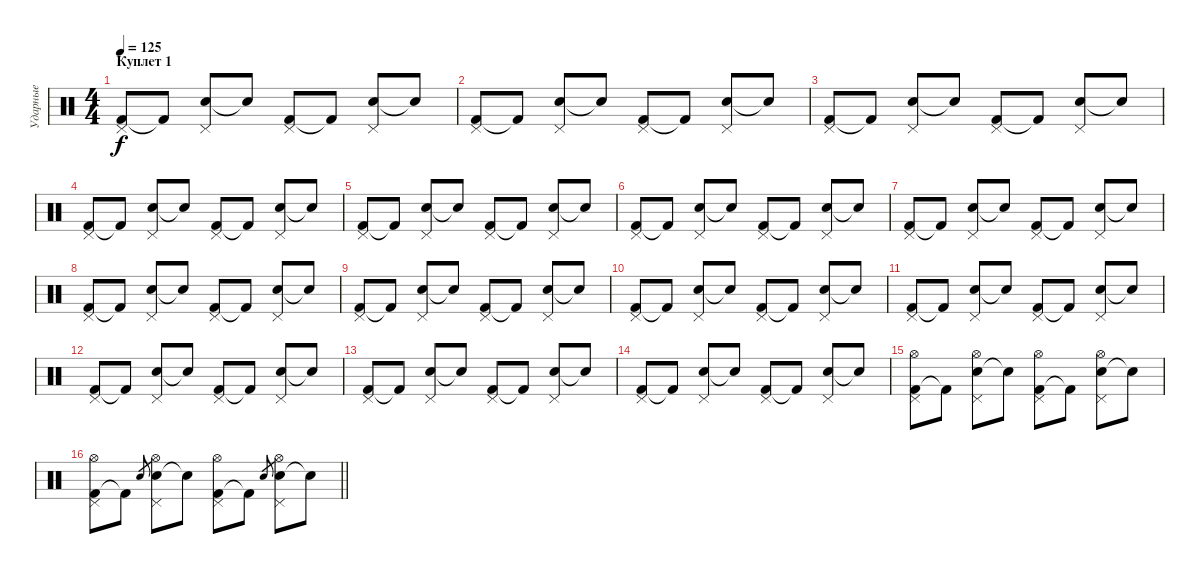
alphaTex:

\track ("Ударные" "Ударные") {instrument percussion}
\staff {score}
\articulation defaults
\ts (4 4)
\section ("" "Куплет 1")
\tempo 125
\clef neutral
\ks c
("Kick (hit) 2" "Pedal Hi-Hat (hit)").8{dy f} "Kick (hit) 2"{t}.8 ("Electric Snare (hit)" "Pedal Hi-Hat (hit)").8 "Electric Snare (hit)"{t}.8 ("Kick (hit) 2" "Pedal Hi-Hat (hit)").8 "Kick (hit) 2"{t}.8 ("Electric Snare (hit)" "Pedal Hi-Hat (hit)").8 "Electric Snare (hit)"{t}.8 |
("Kick (hit) 2" "Pedal Hi-Hat (hit)").8 "Kick (hit) 2"{t}.8 ("Electric Snare (hit)" "Pedal Hi-Hat (hit)").8 "Electric Snare (hit)"{t}.8 ("Kick (hit) 2" "Pedal Hi-Hat (hit)").8 "Kick (hit) 2"{t}.8 ("Electric Snare (hit)" "Pedal Hi-Hat (hit)").8 "Electric Snare (hit)"{t}.8 |
("Kick (hit) 2" "Pedal Hi-Hat (hit)").8 "Kick (hit) 2"{t}.8 ("Electric Snare (hit)" "Pedal Hi-Hat (hit)").8 "Electric Snare (hit)"{t}.8 ("Kick (hit) 2" "Pedal Hi-Hat (hit)").8 "Kick (hit) 2"{t}.8 ("Electric Snare (hit)" "Pedal Hi-Hat (hit)").8 "Electric Snare (hit)"{t}.8 |
("Kick (hit) 2" "Pedal Hi-Hat (hit)").8 "Kick (hit) 2"{t}.8 ("Electric Snare (hit)" "Pedal Hi-Hat (hit)").8 "Electric Snare (hit)"{t}.8 ("Kick (hit) 2" "Pedal Hi-Hat (hit)").8 "Kick (hit) 2"{t}.8 ("Electric Snare (hit)" "Pedal Hi-Hat (hit)").8 "Electric Snare (hit)"{t}.8 |
("Kick (hit) 2" "Pedal Hi-Hat (hit)").8 "Kick (hit) 2"{t}.8 ("Electric Snare (hit)" "Pedal Hi-Hat (hit)").8 "Electric Snare (hit)"{t}.8 ("Kick (hit) 2" "Pedal Hi-Hat (hit)").8 "Kick (hit) 2"{t}.8 ("Electric Snare (hit)" "Pedal Hi-Hat (hit)").8 "Electric Snare (hit)"{t}.8 |
("Kick (hit) 2" "Pedal Hi-Hat (hit)").8 "Kick (hit) 2"{t}.8 ("Electric Snare (hit)" "Pedal Hi-Hat (hit)").8 "Electric Snare (hit)"{t}.8 ("Kick (hit) 2" "Pedal Hi-Hat (hit)").8 "Kick (hit) 2"{t}.8 ("Electric Snare (hit)" "Pedal Hi-Hat (hit)").8 "Electric Snare (hit)"{t}.8 |
("Kick (hit) 2" "Pedal Hi-Hat (hit)").8 "Kick (hit) 2"{t}.8 ("Electric Snare (hit)" "Pedal Hi-Hat (hit)").8 "Electric Snare (hit)"{t}.8 ("Kick (hit) 2" "Pedal Hi-Hat (hit)").8 "Kick (hit) 2"{t}.8 ("Electric Snare (hit)" "Pedal Hi-Hat (hit)").8 "Electric Snare (hit)"{t}.8 |
("Kick (hit) 2" "Pedal Hi-Hat (hit)").8 "Kick (hit) 2"{t}.8 ("Electric Snare (hit)" "Pedal Hi-Hat (hit)").8 "Electric Snare (hit)"{t}.8 ("Kick (hit) 2" "Pedal Hi-Hat (hit)").8 "Kick (hit) 2"{t}.8 ("Electric Snare (hit)" "Pedal Hi-Hat (hit)").8 "Electric Snare (hit)"{t}.8 |
("Kick (hit) 2" "Pedal Hi-Hat (hit)").8 "Kick (hit) 2"{t}.8 ("Electric Snare (hit)" "Pedal Hi-Hat (hit)").8 "Electric Snare (hit)"{t}.8 ("Kick (hit) 2" "Pedal Hi-Hat (hit)").8 "Kick (hit) 2"{t}.8 ("Electric Snare (hit)" "Pedal Hi-Hat (hit)").8 "Electric Snare (hit)"{t}.8 |
("Kick (hit) 2" "Pedal Hi-Hat (hit)").8 "Kick (hit) 2"{t}.8 ("Electric Snare (hit)" "Pedal Hi-Hat (hit)").8 "Electric Snare (hit)"{t}.8 ("Kick (hit) 2" "Pedal Hi-Hat (hit)").8 "Kick (hit) 2"{t}.8 ("Electric Snare (hit)" "Pedal Hi-Hat (hit)").8 "Electric Snare (hit)"{t}.8 |
("Kick (hit) 2" "Pedal Hi-Hat (hit)").8 "Kick (hit) 2"{t}.8 ("Electric Snare (hit)" "Pedal Hi-Hat (hit)").8 "Electric Snare (hit)"{t}.8 ("Kick (hit) 2" "Pedal Hi-Hat (hit)").8 "Kick (hit) 2"{t}.8 ("Electric Snare (hit)" "Pedal Hi-Hat (hit)").8 "Electric Snare (hit)"{t}.8 |
("Kick (hit) 2" "Pedal Hi-Hat (hit)").8 "Kick (hit) 2"{t}.8 ("Electric Snare (hit)" "Pedal Hi-Hat (hit)").8 "Electric Snare (hit)"{t}.8 ("Kick (hit) 2" "Pedal Hi-Hat (hit)").8 "Kick (hit) 2"{t}.8 ("Electric Snare (hit)" "Pedal Hi-Hat (hit)").8 "Electric Snare (hit)"{t}.8 |
("Kick (hit) 2" "Pedal Hi-Hat (hit)").8 "Kick (hit) 2"{t}.8 ("Electric Snare (hit)" "Pedal Hi-Hat (hit)").8 "Electric Snare (hit)"{t}.8 ("Kick (hit) 2" "Pedal Hi-Hat (hit)").8 "Kick (hit) 2"{t}.8 ("Electric Snare (hit)" "Pedal Hi-Hat (hit)").8 "Electric Snare (hit)"{t}.8 |
("Kick (hit) 2" "Pedal Hi-Hat (hit)").8 "Kick (hit) 2"{t}.8 ("Electric Snare (hit)" "Pedal Hi-Hat (hit)").8 "Electric Snare (hit)"{t}.8 ("Kick (hit) 2" "Pedal Hi-Hat (hit)").8 "Kick (hit) 2"{t}.8 ("Electric Snare (hit)" "Pedal Hi-Hat (hit)").8 "Electric Snare (hit)"{t}.8 |
("Kick (hit) 2" "Pedal Hi-Hat (hit)" "Hi-Hat (open)").8 "Kick (hit) 2"{t}.8 ("Electric Snare (hit)" "Pedal Hi-Hat (hit)" "Hi-Hat (open)").8 "Electric Snare (hit)"{t}.8 ("Kick (hit) 2" "Pedal Hi-Hat (hit)" "Hi-Hat (open)").8 "Kick (hit) 2"{t}.8 ("Electric Snare (hit)" "Pedal Hi-Hat (hit)" "Hi-Hat (open)").8 "Electric Snare (hit)"{t}.8 |
\barLineRight lightlight
("Kick (hit) 2" "Pedal Hi-Hat (hit)" "Hi-Hat (open)").8 "Kick (hit) 2"{t}.8 "Electric Snare (hit)".8{gr} ("Electric Snare (hit)" "Pedal Hi-Hat (hit)" "Hi-Hat (open)").8 "Electric Snare (hit)"{t}.8 ("Kick (hit) 2" "Pedal Hi-Hat (hit)" "Hi-Hat (open)").8 "Kick (hit) 2"{t}.8 "Electric Snare (hit)".8{gr} ("Electric Snare (hit)" "Pedal Hi-Hat (hit)" "Hi-Hat (open)").8 "Electric Snare (hit)"{t}.8
